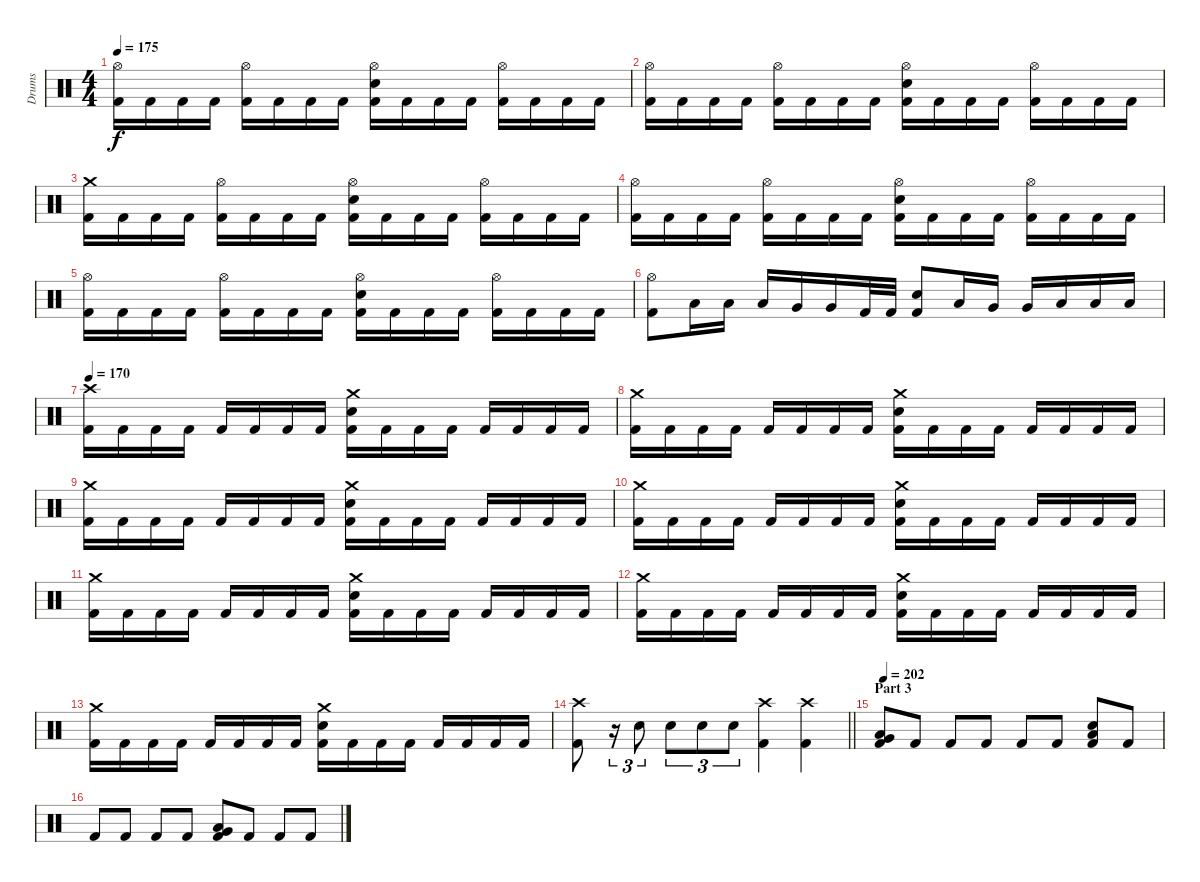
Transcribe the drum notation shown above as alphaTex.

\track ("Drums" "Drums") {instrument percussion}
\staff {score}
\articulation defaults
\ts (4 4)
\tempo 175
\clef neutral
\ks c
("Hi-Hat (open)" "Kick (hit) 2").16{dy f} "Kick (hit) 2".16 "Kick (hit) 2".16 "Kick (hit) 2".16 ("Hi-Hat (open)" "Kick (hit) 2").16 "Kick (hit) 2".16 "Kick (hit) 2".16 "Kick (hit) 2".16 ("Hi-Hat (open)" "Snare (hit) 2" "Kick (hit) 2").16 "Kick (hit) 2".16 "Kick (hit) 2".16 "Kick (hit) 2".16 ("Hi-Hat (open)" "Kick (hit) 2").16 "Kick (hit) 2".16 "Kick (hit) 2".16 "Kick (hit) 2".16 |
("Hi-Hat (open)" "Kick (hit) 2").16 "Kick (hit) 2".16 "Kick (hit) 2".16 "Kick (hit) 2".16 ("Hi-Hat (open)" "Kick (hit) 2").16 "Kick (hit) 2".16 "Kick (hit) 2".16 "Kick (hit) 2".16 ("Hi-Hat (open)" "Snare (hit) 2" "Kick (hit) 2").16 "Kick (hit) 2".16 "Kick (hit) 2".16 "Kick (hit) 2".16 ("Hi-Hat (open)" "Kick (hit) 2").16 "Kick (hit) 2".16 "Kick (hit) 2".16 "Kick (hit) 2".16 |
("Crash medium (hit)" "Kick (hit) 2").16 "Kick (hit) 2".16 "Kick (hit) 2".16 "Kick (hit) 2".16 ("Hi-Hat (open)" "Kick (hit) 2").16 "Kick (hit) 2".16 "Kick (hit) 2".16 "Kick (hit) 2".16 ("Hi-Hat (open)" "Snare (hit) 2" "Kick (hit) 2").16 "Kick (hit) 2".16 "Kick (hit) 2".16 "Kick (hit) 2".16 ("Hi-Hat (open)" "Kick (hit) 2").16 "Kick (hit) 2".16 "Kick (hit) 2".16 "Kick (hit) 2".16 |
("Hi-Hat (open)" "Kick (hit) 2").16 "Kick (hit) 2".16 "Kick (hit) 2".16 "Kick (hit) 2".16 ("Hi-Hat (open)" "Kick (hit) 2").16 "Kick (hit) 2".16 "Kick (hit) 2".16 "Kick (hit) 2".16 ("Hi-Hat (open)" "Snare (hit) 2" "Kick (hit) 2").16 "Kick (hit) 2".16 "Kick (hit) 2".16 "Kick (hit) 2".16 ("Hi-Hat (open)" "Kick (hit) 2").16 "Kick (hit) 2".16 "Kick (hit) 2".16 "Kick (hit) 2".16 |
("Hi-Hat (open)" "Kick (hit) 2").16 "Kick (hit) 2".16 "Kick (hit) 2".16 "Kick (hit) 2".16 ("Hi-Hat (open)" "Kick (hit) 2").16 "Kick (hit) 2".16 "Kick (hit) 2".16 "Kick (hit) 2".16 ("Hi-Hat (open)" "Snare (hit) 2" "Kick (hit) 2").16 "Kick (hit) 2".16 "Kick (hit) 2".16 "Kick (hit) 2".16 ("Hi-Hat (open)" "Kick (hit) 2").16 "Kick (hit) 2".16 "Kick (hit) 2".16 "Kick (hit) 2".16 |
("Hi-Hat (open)" "Kick (hit) 2").8 "Low Tom (hit)".16 "Low Tom (hit)".16 "Low Tom (hit)".16 "Very Low Tom (hit)".16 "Very Low Tom (hit)".16 "Kick (hit) 2".32 "Kick (hit) 2".32 ("Snare (hit) 2" "Kick (hit) 2").8 "Low Tom (hit)".16 "Very Low Tom (hit)".16 "Very Low Tom (hit)".16 "Low Floor Tom (hit)".16 "Low Floor Tom (hit)".16 "Low Floor Tom (hit)".16 |
\tempo 170
("Crash high (hit)" "Kick (hit) 2").16 "Kick (hit) 2".16 "Kick (hit) 2".16 "Kick (hit) 2".16 "Kick (hit) 2".16 "Kick (hit) 2".16 "Kick (hit) 2".16 "Kick (hit) 2".16 ("Crash medium (hit)" "Snare (hit) 2" "Kick (hit) 2").16 "Kick (hit) 2".16 "Kick (hit) 2".16 "Kick (hit) 2".16 "Kick (hit) 2".16 "Kick (hit) 2".16 "Kick (hit) 2".16 "Kick (hit) 2".16 |
("Crash medium (hit)" "Kick (hit) 2").16 "Kick (hit) 2".16 "Kick (hit) 2".16 "Kick (hit) 2".16 "Kick (hit) 2".16 "Kick (hit) 2".16 "Kick (hit) 2".16 "Kick (hit) 2".16 ("Crash medium (hit)" "Snare (hit) 2" "Kick (hit) 2").16 "Kick (hit) 2".16 "Kick (hit) 2".16 "Kick (hit) 2".16 "Kick (hit) 2".16 "Kick (hit) 2".16 "Kick (hit) 2".16 "Kick (hit) 2".16 |
("Crash medium (hit)" "Kick (hit) 2").16 "Kick (hit) 2".16 "Kick (hit) 2".16 "Kick (hit) 2".16 "Kick (hit) 2".16 "Kick (hit) 2".16 "Kick (hit) 2".16 "Kick (hit) 2".16 ("Crash medium (hit)" "Snare (hit) 2" "Kick (hit) 2").16 "Kick (hit) 2".16 "Kick (hit) 2".16 "Kick (hit) 2".16 "Kick (hit) 2".16 "Kick (hit) 2".16 "Kick (hit) 2".16 "Kick (hit) 2".16 |
("Crash medium (hit)" "Kick (hit) 2").16 "Kick (hit) 2".16 "Kick (hit) 2".16 "Kick (hit) 2".16 "Kick (hit) 2".16 "Kick (hit) 2".16 "Kick (hit) 2".16 "Kick (hit) 2".16 ("Crash medium (hit)" "Snare (hit) 2" "Kick (hit) 2").16 "Kick (hit) 2".16 "Kick (hit) 2".16 "Kick (hit) 2".16 "Kick (hit) 2".16 "Kick (hit) 2".16 "Kick (hit) 2".16 "Kick (hit) 2".16 |
("Crash medium (hit)" "Kick (hit) 2").16 "Kick (hit) 2".16 "Kick (hit) 2".16 "Kick (hit) 2".16 "Kick (hit) 2".16 "Kick (hit) 2".16 "Kick (hit) 2".16 "Kick (hit) 2".16 ("Crash medium (hit)" "Snare (hit) 2" "Kick (hit) 2").16 "Kick (hit) 2".16 "Kick (hit) 2".16 "Kick (hit) 2".16 "Kick (hit) 2".16 "Kick (hit) 2".16 "Kick (hit) 2".16 "Kick (hit) 2".16 |
("Crash medium (hit)" "Kick (hit) 2").16 "Kick (hit) 2".16 "Kick (hit) 2".16 "Kick (hit) 2".16 "Kick (hit) 2".16 "Kick (hit) 2".16 "Kick (hit) 2".16 "Kick (hit) 2".16 ("Crash medium (hit)" "Snare (hit) 2" "Kick (hit) 2").16 "Kick (hit) 2".16 "Kick (hit) 2".16 "Kick (hit) 2".16 "Kick (hit) 2".16 "Kick (hit) 2".16 "Kick (hit) 2".16 "Kick (hit) 2".16 |
("Crash medium (hit)" "Kick (hit) 2").16 "Kick (hit) 2".16 "Kick (hit) 2".16 "Kick (hit) 2".16 "Kick (hit) 2".16 "Kick (hit) 2".16 "Kick (hit) 2".16 "Kick (hit) 2".16 ("Crash medium (hit)" "Snare (hit) 2" "Kick (hit) 2").16 "Kick (hit) 2".16 "Kick (hit) 2".16 "Kick (hit) 2".16 "Kick (hit) 2".16 "Kick (hit) 2".16 "Kick (hit) 2".16 "Kick (hit) 2".16 |
\barLineRight lightlight
("Crash high (hit)" "Kick (hit) 2").8 r.16{tu (3 2)} "Snare (hit) 2".8{tu (3 2)} "Snare (hit) 2".8{tu (3 2)} "Snare (hit) 2".8{tu (3 2)} "Snare (hit) 2".8{tu (3 2)} ("Crash high (hit)" "Kick (hit) 2").4 ("Crash high (hit)" "Kick (hit) 2").4 |
\section ("" "Part 3")
\tempo 202
("Low Tom (hit)" "Very Low Tom (hit)" "Kick (hit) 2").8 "Kick (hit) 2".8 "Kick (hit) 2".8 "Kick (hit) 2".8 "Kick (hit) 2".8 "Kick (hit) 2".8 ("Low Tom (hit)" "Snare (hit) 2" "Kick (hit) 2").8 "Kick (hit) 2".8 |
"Kick (hit) 2".8 "Kick (hit) 2".8 "Kick (hit) 2".8 "Kick (hit) 2".8 ("Low Tom (hit)" "Very Low Tom (hit)" "Kick (hit) 2").8 "Kick (hit) 2".8 "Kick (hit) 2".8 "Kick (hit) 2".8
